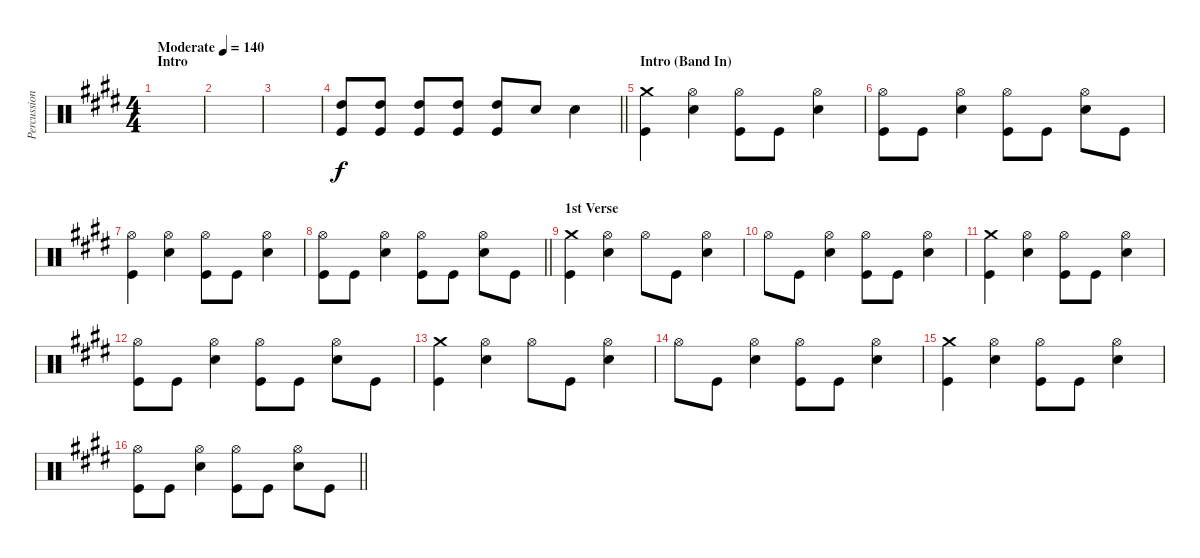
\track ("Percussion" "Percussion") {instrument percussion}
\staff {score}
\articulation defaults
\ts (4 4)
\section ("" "Intro")
\tempo (140 "Moderate")
\clef neutral
\ks e
|
|
|
\barLineRight lightlight
("High Tom (hit)" "Kick (hit)").8 ("High Tom (hit)" "Kick (hit)").8 ("High Tom (hit)" "Kick (hit)").8 ("High Tom (hit)" "Kick (hit)").8 ("High Tom (hit)" "Kick (hit)").8 "Snare (hit) 2".8 "Snare (hit) 2".4 |
\section ("" "Intro (Band In)")
("Crash medium (hit)" "Kick (hit)").4 ("Hi-Hat (open)" "Snare (hit) 2").4 ("Hi-Hat (open)" "Kick (hit)").8 "Kick (hit)".8 ("Hi-Hat (open)" "Snare (hit) 2").4 |
("Hi-Hat (open)" "Kick (hit)").8 "Kick (hit)".8 ("Hi-Hat (open)" "Snare (hit) 2").4 ("Hi-Hat (open)" "Kick (hit)").8 "Kick (hit)".8 ("Hi-Hat (open)" "Snare (hit) 2").8 "Kick (hit)".8 |
("Hi-Hat (open)" "Kick (hit)").4 ("Hi-Hat (open)" "Snare (hit) 2").4 ("Hi-Hat (open)" "Kick (hit)").8 "Kick (hit)".8 ("Hi-Hat (open)" "Snare (hit) 2").4 |
\barLineRight lightlight
("Hi-Hat (open)" "Kick (hit)").8 "Kick (hit)".8 ("Hi-Hat (open)" "Snare (hit) 2").4 ("Hi-Hat (open)" "Kick (hit)").8 "Kick (hit)".8 ("Hi-Hat (open)" "Snare (hit) 2").8 "Kick (hit)".8 |
\section ("" "1st Verse")
("Crash medium (hit)" "Kick (hit)").4 ("Hi-Hat (open)" "Snare (hit) 2").4 "Hi-Hat (open)".8 "Kick (hit)".8 ("Hi-Hat (open)" "Snare (hit) 2").4 |
"Hi-Hat (open)".8 "Kick (hit)".8 ("Hi-Hat (open)" "Snare (hit) 2").4 ("Hi-Hat (open)" "Kick (hit)").8 "Kick (hit)".8 ("Hi-Hat (open)" "Snare (hit) 2").4 |
("Crash medium (hit)" "Kick (hit)").4 ("Hi-Hat (open)" "Snare (hit) 2").4 ("Hi-Hat (open)" "Kick (hit)").8 "Kick (hit)".8 ("Hi-Hat (open)" "Snare (hit) 2").4 |
("Hi-Hat (open)" "Kick (hit)").8 "Kick (hit)".8 ("Hi-Hat (open)" "Snare (hit) 2").4 ("Hi-Hat (open)" "Kick (hit)").8 "Kick (hit)".8 ("Hi-Hat (open)" "Snare (hit) 2").8 "Kick (hit)".8 |
("Crash medium (hit)" "Kick (hit)").4 ("Hi-Hat (open)" "Snare (hit) 2").4 "Hi-Hat (open)".8 "Kick (hit)".8 ("Hi-Hat (open)" "Snare (hit) 2").4 |
"Hi-Hat (open)".8 "Kick (hit)".8 ("Hi-Hat (open)" "Snare (hit) 2").4 ("Hi-Hat (open)" "Kick (hit)").8 "Kick (hit)".8 ("Hi-Hat (open)" "Snare (hit) 2").4 |
("Crash medium (hit)" "Kick (hit)").4 ("Hi-Hat (open)" "Snare (hit) 2").4 ("Hi-Hat (open)" "Kick (hit)").8 "Kick (hit)".8 ("Hi-Hat (open)" "Snare (hit) 2").4 |
\barLineRight lightlight
("Hi-Hat (open)" "Kick (hit)").8 "Kick (hit)".8 ("Hi-Hat (open)" "Snare (hit) 2").4 ("Hi-Hat (open)" "Kick (hit)").8 "Kick (hit)".8 ("Hi-Hat (open)" "Snare (hit) 2").8 "Kick (hit)".8
